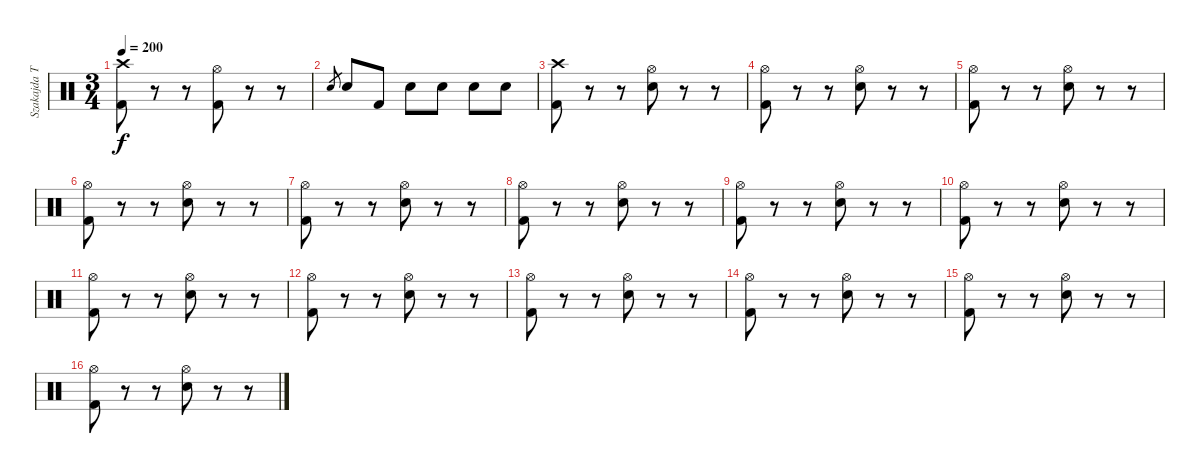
\track ("Szakajda Tibi" "Szakajda T") {instrument percussion}
\staff {score}
\articulation defaults
\ts (3 4)
\tempo 200
\clef neutral
\ks c
("Crash high (hit)" "Kick (hit) 2").8{dy f} r.8 r.8 ("Hi-Hat (open)" "Kick (hit) 2").8 r.8 r.8 |
"Electric Snare (hit)".8{gr} "Electric Snare (hit)".8 "Kick (hit) 2".8 "Electric Snare (hit)".8 "Electric Snare (hit)".8 "Electric Snare (hit)".8 "Electric Snare (hit)".8 |
("Crash high (hit)" "Kick (hit) 2").8 r.8 r.8 ("Hi-Hat (open)" "Electric Snare (hit)").8 r.8 r.8 |
("Hi-Hat (open)" "Kick (hit) 2").8 r.8 r.8 ("Hi-Hat (open)" "Electric Snare (hit)").8 r.8 r.8 |
("Hi-Hat (open)" "Kick (hit) 2").8 r.8 r.8 ("Hi-Hat (open)" "Electric Snare (hit)").8 r.8 r.8 |
("Hi-Hat (open)" "Kick (hit) 2").8 r.8 r.8 ("Hi-Hat (open)" "Electric Snare (hit)").8 r.8 r.8 |
("Hi-Hat (open)" "Kick (hit) 2").8 r.8 r.8 ("Hi-Hat (open)" "Electric Snare (hit)").8 r.8 r.8 |
("Hi-Hat (open)" "Kick (hit) 2").8 r.8 r.8 ("Hi-Hat (open)" "Electric Snare (hit)").8 r.8 r.8 |
("Hi-Hat (open)" "Kick (hit) 2").8 r.8 r.8 ("Hi-Hat (open)" "Electric Snare (hit)").8 r.8 r.8 |
("Hi-Hat (open)" "Kick (hit) 2").8 r.8 r.8 ("Hi-Hat (open)" "Electric Snare (hit)").8 r.8 r.8 |
("Hi-Hat (open)" "Kick (hit) 2").8 r.8 r.8 ("Hi-Hat (open)" "Electric Snare (hit)").8 r.8 r.8 |
("Hi-Hat (open)" "Kick (hit) 2").8 r.8 r.8 ("Hi-Hat (open)" "Electric Snare (hit)").8 r.8 r.8 |
("Hi-Hat (open)" "Kick (hit) 2").8 r.8 r.8 ("Hi-Hat (open)" "Electric Snare (hit)").8 r.8 r.8 |
("Hi-Hat (open)" "Kick (hit) 2").8 r.8 r.8 ("Hi-Hat (open)" "Electric Snare (hit)").8 r.8 r.8 |
("Hi-Hat (open)" "Kick (hit) 2").8 r.8 r.8 ("Hi-Hat (open)" "Electric Snare (hit)").8 r.8 r.8 |
("Hi-Hat (open)" "Kick (hit) 2").8 r.8 r.8 ("Hi-Hat (open)" "Electric Snare (hit)").8 r.8 r.8
